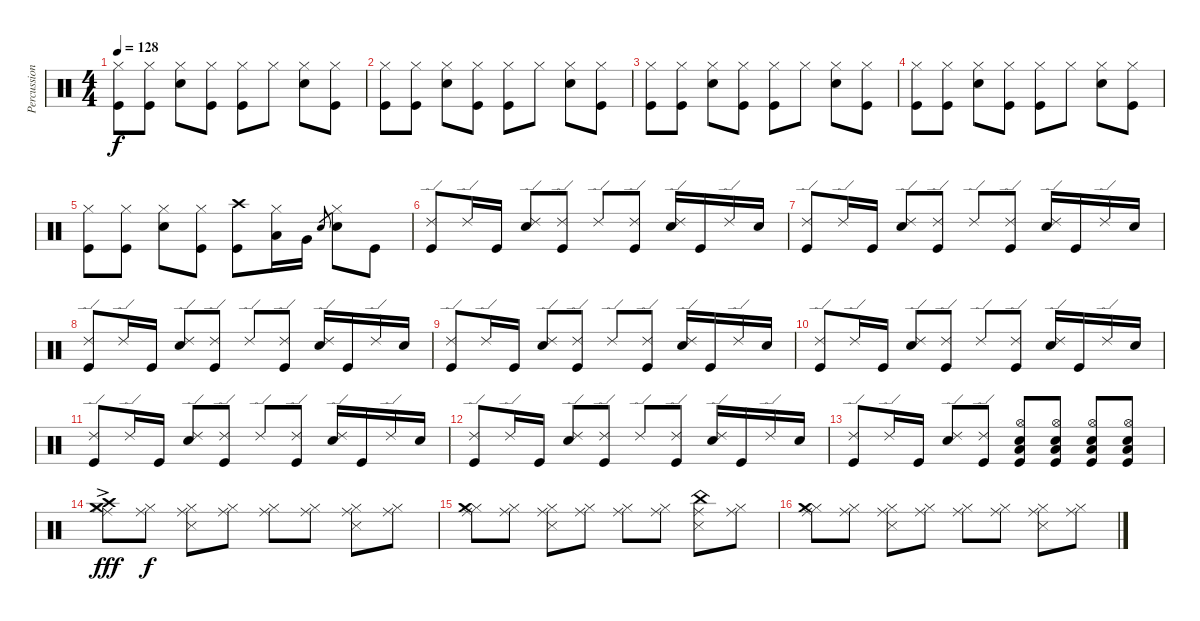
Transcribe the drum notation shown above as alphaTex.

\track ("Percussions" "Percussion") {instrument percussion}
\staff {score}
\articulation defaults
\ts (4 4)
\tempo 128
\clef neutral
\ks c
("Hi-Hat (closed)" "Kick (hit)").8{dy f} ("Hi-Hat (closed)" "Kick (hit)").8 ("Hi-Hat (closed)" "Electric Snare (hit)").8 ("Hi-Hat (closed)" "Kick (hit)").8 ("Hi-Hat (closed)" "Kick (hit)").8 "Hi-Hat (closed)".8 ("Hi-Hat (closed)" "Electric Snare (hit)").8 ("Hi-Hat (closed)" "Kick (hit)").8 |
("Hi-Hat (closed)" "Kick (hit)").8 ("Hi-Hat (closed)" "Kick (hit)").8 ("Hi-Hat (closed)" "Electric Snare (hit)").8 ("Hi-Hat (closed)" "Kick (hit)").8 ("Hi-Hat (closed)" "Kick (hit)").8 "Hi-Hat (closed)".8 ("Hi-Hat (closed)" "Electric Snare (hit)").8 ("Hi-Hat (closed)" "Kick (hit)").8 |
("Hi-Hat (closed)" "Kick (hit)").8 ("Hi-Hat (closed)" "Kick (hit)").8 ("Hi-Hat (closed)" "Electric Snare (hit)").8 ("Hi-Hat (closed)" "Kick (hit)").8 ("Hi-Hat (closed)" "Kick (hit)").8 "Hi-Hat (closed)".8 ("Hi-Hat (closed)" "Electric Snare (hit)").8 ("Hi-Hat (closed)" "Kick (hit)").8 |
("Hi-Hat (closed)" "Kick (hit)").8 ("Hi-Hat (closed)" "Kick (hit)").8 ("Hi-Hat (closed)" "Electric Snare (hit)").8 ("Hi-Hat (closed)" "Kick (hit)").8 ("Hi-Hat (closed)" "Kick (hit)").8 "Hi-Hat (closed)".8 ("Hi-Hat (closed)" "Electric Snare (hit)").8 ("Hi-Hat (closed)" "Kick (hit)").8 |
("Hi-Hat (closed)" "Kick (hit)").8 ("Hi-Hat (closed)" "Kick (hit)").8 ("Hi-Hat (closed)" "Electric Snare (hit)").8 ("Hi-Hat (closed)" "Kick (hit)").8 ("Crash high (hit)" "Kick (hit)").8 ("Hi-Hat (closed)" "Low Tom (hit)").16 "Very Low Tom (hit)".16 "Electric Snare (hit)".8{gr} ("Hi-Hat (closed)" "Electric Snare (hit)").8 "Kick (hit)".8 |
("Ride (edge) 2" "Kick (hit)").8 "Ride (edge) 2".16 "Kick (hit)".16 ("Ride (edge) 2" "Electric Snare (hit)").8 ("Ride (edge) 2" "Kick (hit)").8 "Ride (edge) 2".8 ("Ride (edge) 2" "Kick (hit)").8 ("Ride (edge) 2" "Electric Snare (hit)").16 "Kick (hit)".16 "Ride (edge) 2".16 "Electric Snare (hit)".16 |
("Ride (edge) 2" "Kick (hit)").8 "Ride (edge) 2".16 "Kick (hit)".16 ("Ride (edge) 2" "Electric Snare (hit)").8 ("Ride (edge) 2" "Kick (hit)").8 "Ride (edge) 2".8 ("Ride (edge) 2" "Kick (hit)").8 ("Ride (edge) 2" "Electric Snare (hit)").16 "Kick (hit)".16 "Ride (edge) 2".16 "Electric Snare (hit)".16 |
("Ride (edge) 2" "Kick (hit)").8 "Ride (edge) 2".16 "Kick (hit)".16 ("Ride (edge) 2" "Electric Snare (hit)").8 ("Ride (edge) 2" "Kick (hit)").8 "Ride (edge) 2".8 ("Ride (edge) 2" "Kick (hit)").8 ("Ride (edge) 2" "Electric Snare (hit)").16 "Kick (hit)".16 "Ride (edge) 2".16 "Electric Snare (hit)".16 |
("Ride (edge) 2" "Kick (hit)").8 "Ride (edge) 2".16 "Kick (hit)".16 ("Ride (edge) 2" "Electric Snare (hit)").8 ("Ride (edge) 2" "Kick (hit)").8 "Ride (edge) 2".8 ("Ride (edge) 2" "Kick (hit)").8 ("Ride (edge) 2" "Electric Snare (hit)").16 "Kick (hit)".16 "Ride (edge) 2".16 "Electric Snare (hit)".16 |
("Ride (edge) 2" "Kick (hit)").8 "Ride (edge) 2".16 "Kick (hit)".16 ("Ride (edge) 2" "Electric Snare (hit)").8 ("Ride (edge) 2" "Kick (hit)").8 "Ride (edge) 2".8 ("Ride (edge) 2" "Kick (hit)").8 ("Ride (edge) 2" "Electric Snare (hit)").16 "Kick (hit)".16 "Ride (edge) 2".16 "Electric Snare (hit)".16 |
("Ride (edge) 2" "Kick (hit)").8 "Ride (edge) 2".16 "Kick (hit)".16 ("Ride (edge) 2" "Electric Snare (hit)").8 ("Ride (edge) 2" "Kick (hit)").8 "Ride (edge) 2".8 ("Ride (edge) 2" "Kick (hit)").8 ("Ride (edge) 2" "Electric Snare (hit)").16 "Kick (hit)".16 "Ride (edge) 2".16 "Electric Snare (hit)".16 |
("Ride (edge) 2" "Kick (hit)").8 "Ride (edge) 2".16 "Kick (hit)".16 ("Ride (edge) 2" "Electric Snare (hit)").8 ("Ride (edge) 2" "Kick (hit)").8 "Ride (edge) 2".8 ("Ride (edge) 2" "Kick (hit)").8 ("Ride (edge) 2" "Electric Snare (hit)").16 "Kick (hit)".16 "Ride (edge) 2".16 "Electric Snare (hit)".16 |
("Ride (edge) 2" "Kick (hit)").8 "Ride (edge) 2".16 "Kick (hit)".16 ("Ride (edge) 2" "Electric Snare (hit)").8 ("Ride (edge) 2" "Kick (hit)").8 ("Hi-Hat (open)" "Electric Snare (hit)" "Low Floor Tom (hit)" "Kick (hit)").8 ("Hi-Hat (open)" "Electric Snare (hit)" "Low Floor Tom (hit)" "Kick (hit)").8 ("Hi-Hat (open)" "Electric Snare (hit)" "Low Floor Tom (hit)" "Kick (hit)").8 ("Hi-Hat (open)" "Electric Snare (hit)" "Low Floor Tom (hit)" "Kick (hit)").8 |
("Hi-Hat (closed)" "Crash medium (hit)"{ac} "Crash high (hit)"{ac} "Ride (middle)").8{dy fff} ("Hi-Hat (closed)" "Ride (middle)").8{dy f} ("Hi-Hat (closed)" "Snare (side stick) 3" "Ride (middle)").8 ("Hi-Hat (closed)" "Ride (middle)").8 ("Hi-Hat (closed)" "Ride (middle)").8 ("Hi-Hat (closed)" "Ride (middle)").8 ("Hi-Hat (closed)" "Snare (side stick) 3" "Ride (middle)").8 ("Hi-Hat (closed)" "Ride (middle)").8 |
("Hi-Hat (closed)" "Crash medium (hit)" "Ride (middle)").8 ("Hi-Hat (closed)" "Ride (middle)").8 ("Hi-Hat (closed)" "Snare (side stick) 3" "Ride (middle)").8 ("Hi-Hat (closed)" "Ride (middle)").8 ("Hi-Hat (closed)" "Ride (middle)").8 ("Hi-Hat (closed)" "Ride (middle)").8 ("China (hit)" "Snare (side stick) 3" "Ride (middle)").8 ("Hi-Hat (closed)" "Ride (middle)").8 |
("Hi-Hat (closed)" "Crash medium (hit)" "Ride (middle)").8 ("Hi-Hat (closed)" "Ride (middle)").8 ("Hi-Hat (closed)" "Snare (side stick) 3" "Ride (middle)").8 ("Hi-Hat (closed)" "Ride (middle)").8 ("Hi-Hat (closed)" "Ride (middle)").8 ("Hi-Hat (closed)" "Ride (middle)").8 ("Hi-Hat (closed)" "Snare (side stick) 3" "Ride (middle)").8 ("Hi-Hat (closed)" "Ride (middle)").8
